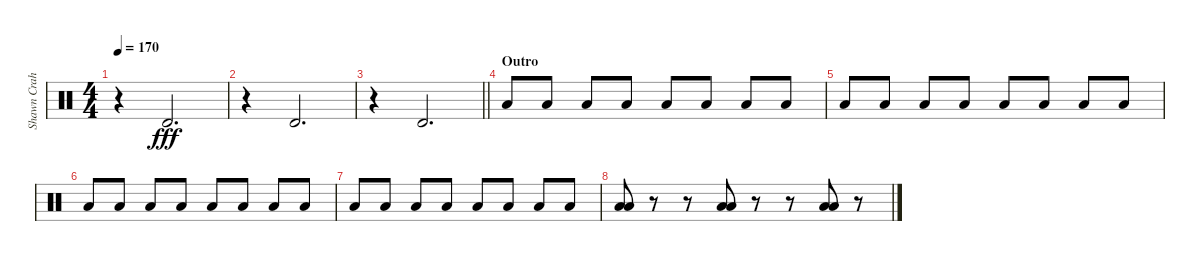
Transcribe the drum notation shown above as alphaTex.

\track ("Shawn Crahan" "Shawn Crah") {instrument percussion}
\staff {score}
\articulation defaults
\ts (4 4)
\tempo 170
\clef neutral
\ks c
r.4{dy fff} "Timbale high (hit)".2{d} |
r.4 "Timbale high (hit)".2{d} |
\barLineRight lightlight
r.4 "Timbale high (hit)".2{d} |
\section ("" "Outro")
"Low Floor Tom (hit)".8 "Low Floor Tom (hit)".8 "Low Floor Tom (hit)".8 "Low Floor Tom (hit)".8 "Low Floor Tom (hit)".8 "Low Floor Tom (hit)".8 "Low Floor Tom (hit)".8 "Low Floor Tom (hit)".8 |
"Low Floor Tom (hit)".8 "Low Floor Tom (hit)".8 "Low Floor Tom (hit)".8 "Low Floor Tom (hit)".8 "Low Floor Tom (hit)".8 "Low Floor Tom (hit)".8 "Low Floor Tom (hit)".8 "Low Floor Tom (hit)".8 |
"Low Floor Tom (hit)".8 "Low Floor Tom (hit)".8 "Low Floor Tom (hit)".8 "Low Floor Tom (hit)".8 "Low Floor Tom (hit)".8 "Low Floor Tom (hit)".8 "Low Floor Tom (hit)".8 "Low Floor Tom (hit)".8 |
"Low Floor Tom (hit)".8 "Low Floor Tom (hit)".8 "Low Floor Tom (hit)".8 "Low Floor Tom (hit)".8 "Low Floor Tom (hit)".8 "Low Floor Tom (hit)".8 "Low Floor Tom (hit)".8 "Low Floor Tom (hit)".8 |
("Low Floor Tom (hit)" "Low Floor Tom (hit)").8 r.8 r.8 ("Low Floor Tom (hit)" "Low Floor Tom (hit)").8 r.8 r.8 ("Low Floor Tom (hit)" "Low Floor Tom (hit)").8 r.8
